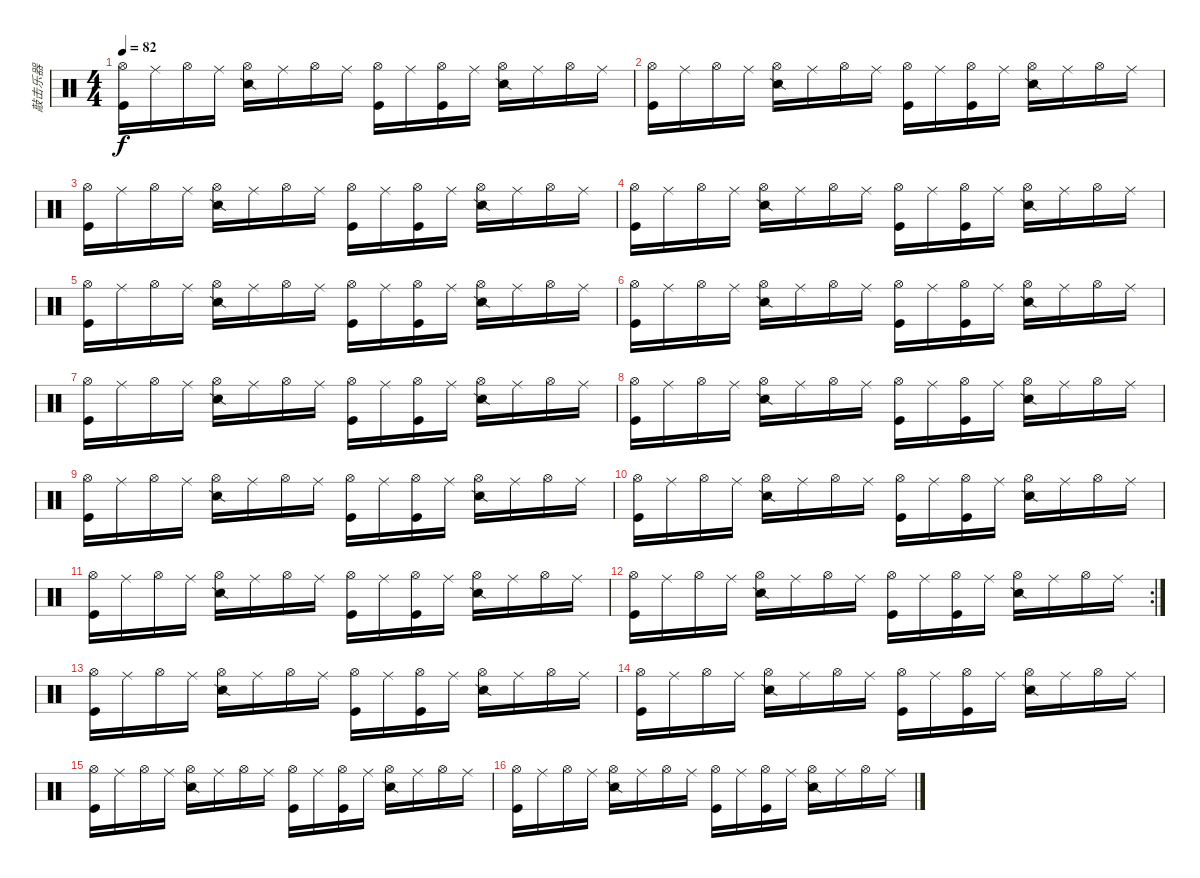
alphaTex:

\track ("敲击乐器" "敲击乐器") {instrument percussion}
\staff {score}
\articulation defaults
\ts (4 4)
\tempo 82
\clef neutral
\ks c
("Hi-Hat (open)" "Kick (hit)").16{dy f} "Ride (middle)".16 "Hi-Hat (open)".16 "Ride (middle)".16 ("Hi-Hat (open)" "Snare (side stick) 2").16 "Ride (middle)".16 "Hi-Hat (open)".16 "Ride (middle)".16 ("Hi-Hat (open)" "Kick (hit)").16 "Ride (middle)".16 ("Hi-Hat (open)" "Kick (hit)").16 "Ride (middle)".16 ("Hi-Hat (open)" "Snare (side stick) 2").16 "Ride (middle)".16 "Hi-Hat (open)".16 "Ride (middle)".16 |
("Hi-Hat (open)" "Kick (hit)").16 "Ride (middle)".16 "Hi-Hat (open)".16 "Ride (middle)".16 ("Hi-Hat (open)" "Snare (side stick) 2").16 "Ride (middle)".16 "Hi-Hat (open)".16 "Ride (middle)".16 ("Hi-Hat (open)" "Kick (hit)").16 "Ride (middle)".16 ("Hi-Hat (open)" "Kick (hit)").16 "Ride (middle)".16 ("Hi-Hat (open)" "Snare (side stick) 2").16 "Ride (middle)".16 "Hi-Hat (open)".16 "Ride (middle)".16 |
("Hi-Hat (open)" "Kick (hit)").16 "Ride (middle)".16 "Hi-Hat (open)".16 "Ride (middle)".16 ("Hi-Hat (open)" "Snare (side stick) 2").16 "Ride (middle)".16 "Hi-Hat (open)".16 "Ride (middle)".16 ("Hi-Hat (open)" "Kick (hit)").16 "Ride (middle)".16 ("Hi-Hat (open)" "Kick (hit)").16 "Ride (middle)".16 ("Hi-Hat (open)" "Snare (side stick) 2").16 "Ride (middle)".16 "Hi-Hat (open)".16 "Ride (middle)".16 |
("Hi-Hat (open)" "Kick (hit)").16 "Ride (middle)".16 "Hi-Hat (open)".16 "Ride (middle)".16 ("Hi-Hat (open)" "Snare (side stick) 2").16 "Ride (middle)".16 "Hi-Hat (open)".16 "Ride (middle)".16 ("Hi-Hat (open)" "Kick (hit)").16 "Ride (middle)".16 ("Hi-Hat (open)" "Kick (hit)").16 "Ride (middle)".16 ("Hi-Hat (open)" "Snare (side stick) 2").16 "Ride (middle)".16 "Hi-Hat (open)".16 "Ride (middle)".16 |
("Hi-Hat (open)" "Kick (hit)").16 "Ride (middle)".16 "Hi-Hat (open)".16 "Ride (middle)".16 ("Hi-Hat (open)" "Snare (side stick) 2").16 "Ride (middle)".16 "Hi-Hat (open)".16 "Ride (middle)".16 ("Hi-Hat (open)" "Kick (hit)").16 "Ride (middle)".16 ("Hi-Hat (open)" "Kick (hit)").16 "Ride (middle)".16 ("Hi-Hat (open)" "Snare (side stick) 2").16 "Ride (middle)".16 "Hi-Hat (open)".16 "Ride (middle)".16 |
("Hi-Hat (open)" "Kick (hit)").16 "Ride (middle)".16 "Hi-Hat (open)".16 "Ride (middle)".16 ("Hi-Hat (open)" "Snare (side stick) 2").16 "Ride (middle)".16 "Hi-Hat (open)".16 "Ride (middle)".16 ("Hi-Hat (open)" "Kick (hit)").16 "Ride (middle)".16 ("Hi-Hat (open)" "Kick (hit)").16 "Ride (middle)".16 ("Hi-Hat (open)" "Snare (side stick) 2").16 "Ride (middle)".16 "Hi-Hat (open)".16 "Ride (middle)".16 |
("Hi-Hat (open)" "Kick (hit)").16 "Ride (middle)".16 "Hi-Hat (open)".16 "Ride (middle)".16 ("Hi-Hat (open)" "Snare (side stick) 2").16 "Ride (middle)".16 "Hi-Hat (open)".16 "Ride (middle)".16 ("Hi-Hat (open)" "Kick (hit)").16 "Ride (middle)".16 ("Hi-Hat (open)" "Kick (hit)").16 "Ride (middle)".16 ("Hi-Hat (open)" "Snare (side stick) 2").16 "Ride (middle)".16 "Hi-Hat (open)".16 "Ride (middle)".16 |
("Hi-Hat (open)" "Kick (hit)").16 "Ride (middle)".16 "Hi-Hat (open)".16 "Ride (middle)".16 ("Hi-Hat (open)" "Snare (side stick) 2").16 "Ride (middle)".16 "Hi-Hat (open)".16 "Ride (middle)".16 ("Hi-Hat (open)" "Kick (hit)").16 "Ride (middle)".16 ("Hi-Hat (open)" "Kick (hit)").16 "Ride (middle)".16 ("Hi-Hat (open)" "Snare (side stick) 2").16 "Ride (middle)".16 "Hi-Hat (open)".16 "Ride (middle)".16 |
("Hi-Hat (open)" "Kick (hit)").16 "Ride (middle)".16 "Hi-Hat (open)".16 "Ride (middle)".16 ("Hi-Hat (open)" "Snare (side stick) 2").16 "Ride (middle)".16 "Hi-Hat (open)".16 "Ride (middle)".16 ("Hi-Hat (open)" "Kick (hit)").16 "Ride (middle)".16 ("Hi-Hat (open)" "Kick (hit)").16 "Ride (middle)".16 ("Hi-Hat (open)" "Snare (side stick) 2").16 "Ride (middle)".16 "Hi-Hat (open)".16 "Ride (middle)".16 |
("Hi-Hat (open)" "Kick (hit)").16 "Ride (middle)".16 "Hi-Hat (open)".16 "Ride (middle)".16 ("Hi-Hat (open)" "Snare (side stick) 2").16 "Ride (middle)".16 "Hi-Hat (open)".16 "Ride (middle)".16 ("Hi-Hat (open)" "Kick (hit)").16 "Ride (middle)".16 ("Hi-Hat (open)" "Kick (hit)").16 "Ride (middle)".16 ("Hi-Hat (open)" "Snare (side stick) 2").16 "Ride (middle)".16 "Hi-Hat (open)".16 "Ride (middle)".16 |
("Hi-Hat (open)" "Kick (hit)").16 "Ride (middle)".16 "Hi-Hat (open)".16 "Ride (middle)".16 ("Hi-Hat (open)" "Snare (side stick) 2").16 "Ride (middle)".16 "Hi-Hat (open)".16 "Ride (middle)".16 ("Hi-Hat (open)" "Kick (hit)").16 "Ride (middle)".16 ("Hi-Hat (open)" "Kick (hit)").16 "Ride (middle)".16 ("Hi-Hat (open)" "Snare (side stick) 2").16 "Ride (middle)".16 "Hi-Hat (open)".16 "Ride (middle)".16 |
\rc 2
("Hi-Hat (open)" "Kick (hit)").16 "Ride (middle)".16 "Hi-Hat (open)".16 "Ride (middle)".16 ("Hi-Hat (open)" "Snare (side stick) 2").16 "Ride (middle)".16 "Hi-Hat (open)".16 "Ride (middle)".16 ("Hi-Hat (open)" "Kick (hit)").16 "Ride (middle)".16 ("Hi-Hat (open)" "Kick (hit)").16 "Ride (middle)".16 ("Hi-Hat (open)" "Snare (side stick) 2").16 "Ride (middle)".16 "Hi-Hat (open)".16 "Ride (middle)".16 |
("Hi-Hat (open)" "Kick (hit)").16 "Ride (middle)".16 "Hi-Hat (open)".16 "Ride (middle)".16 ("Hi-Hat (open)" "Snare (side stick) 2").16 "Ride (middle)".16 "Hi-Hat (open)".16 "Ride (middle)".16 ("Hi-Hat (open)" "Kick (hit)").16 "Ride (middle)".16 ("Hi-Hat (open)" "Kick (hit)").16 "Ride (middle)".16 ("Hi-Hat (open)" "Snare (side stick) 2").16 "Ride (middle)".16 "Hi-Hat (open)".16 "Ride (middle)".16 |
("Hi-Hat (open)" "Kick (hit)").16 "Ride (middle)".16 "Hi-Hat (open)".16 "Ride (middle)".16 ("Hi-Hat (open)" "Snare (side stick) 2").16 "Ride (middle)".16 "Hi-Hat (open)".16 "Ride (middle)".16 ("Hi-Hat (open)" "Kick (hit)").16 "Ride (middle)".16 ("Hi-Hat (open)" "Kick (hit)").16 "Ride (middle)".16 ("Hi-Hat (open)" "Snare (side stick) 2").16 "Ride (middle)".16 "Hi-Hat (open)".16 "Ride (middle)".16 |
("Hi-Hat (open)" "Kick (hit)").16 "Ride (middle)".16 "Hi-Hat (open)".16 "Ride (middle)".16 ("Hi-Hat (open)" "Snare (side stick) 2").16 "Ride (middle)".16 "Hi-Hat (open)".16 "Ride (middle)".16 ("Hi-Hat (open)" "Kick (hit)").16 "Ride (middle)".16 ("Hi-Hat (open)" "Kick (hit)").16 "Ride (middle)".16 ("Hi-Hat (open)" "Snare (side stick) 2").16 "Ride (middle)".16 "Hi-Hat (open)".16 "Ride (middle)".16 |
("Hi-Hat (open)" "Kick (hit)").16 "Ride (middle)".16 "Hi-Hat (open)".16 "Ride (middle)".16 ("Hi-Hat (open)" "Snare (side stick) 2").16 "Ride (middle)".16 "Hi-Hat (open)".16 "Ride (middle)".16 ("Hi-Hat (open)" "Kick (hit)").16 "Ride (middle)".16 ("Hi-Hat (open)" "Kick (hit)").16 "Ride (middle)".16 ("Hi-Hat (open)" "Snare (side stick) 2").16 "Ride (middle)".16 "Hi-Hat (open)".16 "Ride (middle)".16
